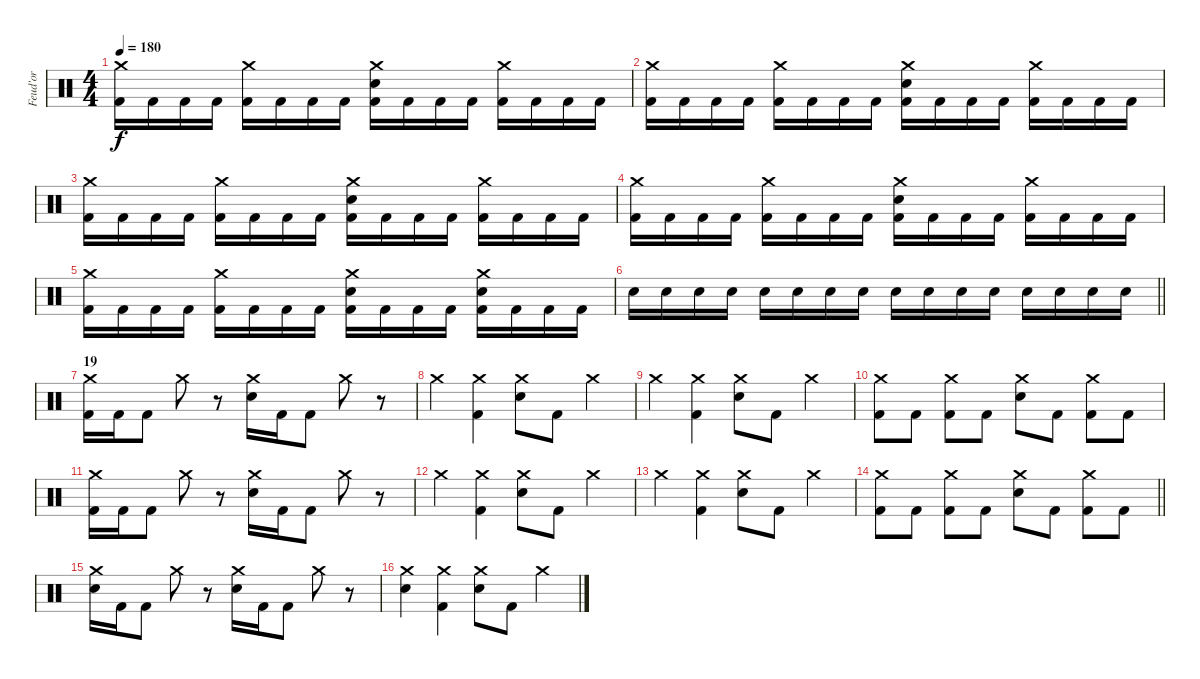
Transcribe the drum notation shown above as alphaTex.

\track ("Feud'or" "Feud'or") {instrument percussion}
\staff {score}
\articulation defaults
\ts (4 4)
\tempo 180
\clef neutral
\ks c
("Crash medium (hit)" "Kick (hit) 2").16{dy f} "Kick (hit) 2".16 "Kick (hit) 2".16 "Kick (hit) 2".16 ("Crash medium (hit)" "Kick (hit) 2").16 "Kick (hit) 2".16 "Kick (hit) 2".16 "Kick (hit) 2".16 ("Crash medium (hit)" "Snare (hit) 2" "Kick (hit) 2").16 "Kick (hit) 2".16 "Kick (hit) 2".16 "Kick (hit) 2".16 ("Crash medium (hit)" "Kick (hit) 2").16 "Kick (hit) 2".16 "Kick (hit) 2".16 "Kick (hit) 2".16 |
("Crash medium (hit)" "Kick (hit) 2").16 "Kick (hit) 2".16 "Kick (hit) 2".16 "Kick (hit) 2".16 ("Crash medium (hit)" "Kick (hit) 2").16 "Kick (hit) 2".16 "Kick (hit) 2".16 "Kick (hit) 2".16 ("Crash medium (hit)" "Snare (hit) 2" "Kick (hit) 2").16 "Kick (hit) 2".16 "Kick (hit) 2".16 "Kick (hit) 2".16 ("Crash medium (hit)" "Kick (hit) 2").16 "Kick (hit) 2".16 "Kick (hit) 2".16 "Kick (hit) 2".16 |
("Crash medium (hit)" "Kick (hit) 2").16 "Kick (hit) 2".16 "Kick (hit) 2".16 "Kick (hit) 2".16 ("Crash medium (hit)" "Kick (hit) 2").16 "Kick (hit) 2".16 "Kick (hit) 2".16 "Kick (hit) 2".16 ("Crash medium (hit)" "Snare (hit) 2" "Kick (hit) 2").16 "Kick (hit) 2".16 "Kick (hit) 2".16 "Kick (hit) 2".16 ("Crash medium (hit)" "Kick (hit) 2").16 "Kick (hit) 2".16 "Kick (hit) 2".16 "Kick (hit) 2".16 |
("Crash medium (hit)" "Kick (hit) 2").16 "Kick (hit) 2".16 "Kick (hit) 2".16 "Kick (hit) 2".16 ("Crash medium (hit)" "Kick (hit) 2").16 "Kick (hit) 2".16 "Kick (hit) 2".16 "Kick (hit) 2".16 ("Crash medium (hit)" "Snare (hit) 2" "Kick (hit) 2").16 "Kick (hit) 2".16 "Kick (hit) 2".16 "Kick (hit) 2".16 ("Crash medium (hit)" "Kick (hit) 2").16 "Kick (hit) 2".16 "Kick (hit) 2".16 "Kick (hit) 2".16 |
("Crash medium (hit)" "Kick (hit) 2").16 "Kick (hit) 2".16 "Kick (hit) 2".16 "Kick (hit) 2".16 ("Crash medium (hit)" "Kick (hit) 2").16 "Kick (hit) 2".16 "Kick (hit) 2".16 "Kick (hit) 2".16 ("Crash medium (hit)" "Snare (hit) 2" "Kick (hit) 2").16 "Kick (hit) 2".16 "Kick (hit) 2".16 "Kick (hit) 2".16 ("Crash medium (hit)" "Snare (hit) 2" "Kick (hit) 2").16 "Kick (hit) 2".16 "Kick (hit) 2".16 "Kick (hit) 2".16 |
\barLineRight lightlight "Snare (hit) 2".16 "Snare (hit) 2".16 "Snare (hit) 2".16 "Snare (hit) 2".16 "Snare (hit) 2".16 "Snare (hit) 2".16 "Snare (hit) 2".16 "Snare (hit) 2".16 "Snare (hit) 2".16 "Snare (hit) 2".16 "Snare (hit) 2".16 "Snare (hit) 2".16 "Snare (hit) 2".16 "Snare (hit) 2".16 "Snare (hit) 2".16 "Snare (hit) 2".16
|
\section ("" "19")
("Crash medium (hit)" "Kick (hit) 2").16 "Kick (hit) 2".16 "Kick (hit) 2".8 "Crash medium (hit)".8 r.8 ("Crash medium (hit)" "Snare (hit) 2").16 "Kick (hit) 2".16 "Kick (hit) 2".8 "Crash medium (hit)".8 r.8 |
"Crash medium (hit)".4 ("Crash medium (hit)" "Kick (hit) 2").4 ("Crash medium (hit)" "Snare (hit) 2").8 "Kick (hit) 2".8 "Crash medium (hit)".4 |
"Crash medium (hit)".4 ("Crash medium (hit)" "Kick (hit) 2").4 ("Crash medium (hit)" "Snare (hit) 2").8 "Kick (hit) 2".8 "Crash medium (hit)".4 |
("Crash medium (hit)" "Kick (hit) 2").8 "Kick (hit) 2".8 ("Crash medium (hit)" "Kick (hit) 2").8 "Kick (hit) 2".8 ("Crash medium (hit)" "Snare (hit) 2").8 "Kick (hit) 2".8 ("Crash medium (hit)" "Kick (hit) 2").8 "Kick (hit) 2".8 |
("Crash medium (hit)" "Kick (hit) 2").16 "Kick (hit) 2".16 "Kick (hit) 2".8 "Crash medium (hit)".8 r.8 ("Crash medium (hit)" "Snare (hit) 2").16 "Kick (hit) 2".16 "Kick (hit) 2".8 "Crash medium (hit)".8 r.8 |
"Crash medium (hit)".4 ("Crash medium (hit)" "Kick (hit) 2").4 ("Crash medium (hit)" "Snare (hit) 2").8 "Kick (hit) 2".8 "Crash medium (hit)".4 |
"Crash medium (hit)".4 ("Crash medium (hit)" "Kick (hit) 2").4 ("Crash medium (hit)" "Snare (hit) 2").8 "Kick (hit) 2".8 "Crash medium (hit)".4 |
\barLineRight lightlight
("Crash medium (hit)" "Kick (hit) 2").8 "Kick (hit) 2".8 ("Crash medium (hit)" "Kick (hit) 2").8 "Kick (hit) 2".8 ("Crash medium (hit)" "Snare (hit) 2").8 "Kick (hit) 2".8 ("Crash medium (hit)" "Kick (hit) 2").8 "Kick (hit) 2".8 |
("Crash medium (hit)" "Snare (hit) 2").16 "Kick (hit) 2".16 "Kick (hit) 2".8 "Crash medium (hit)".8 r.8 ("Crash medium (hit)" "Snare (hit) 2").16 "Kick (hit) 2".16 "Kick (hit) 2".8 "Crash medium (hit)".8 r.8 |
("Crash medium (hit)" "Snare (hit) 2").4 ("Crash medium (hit)" "Kick (hit) 2").4 ("Crash medium (hit)" "Snare (hit) 2").8 "Kick (hit) 2".8 "Crash medium (hit)".4
